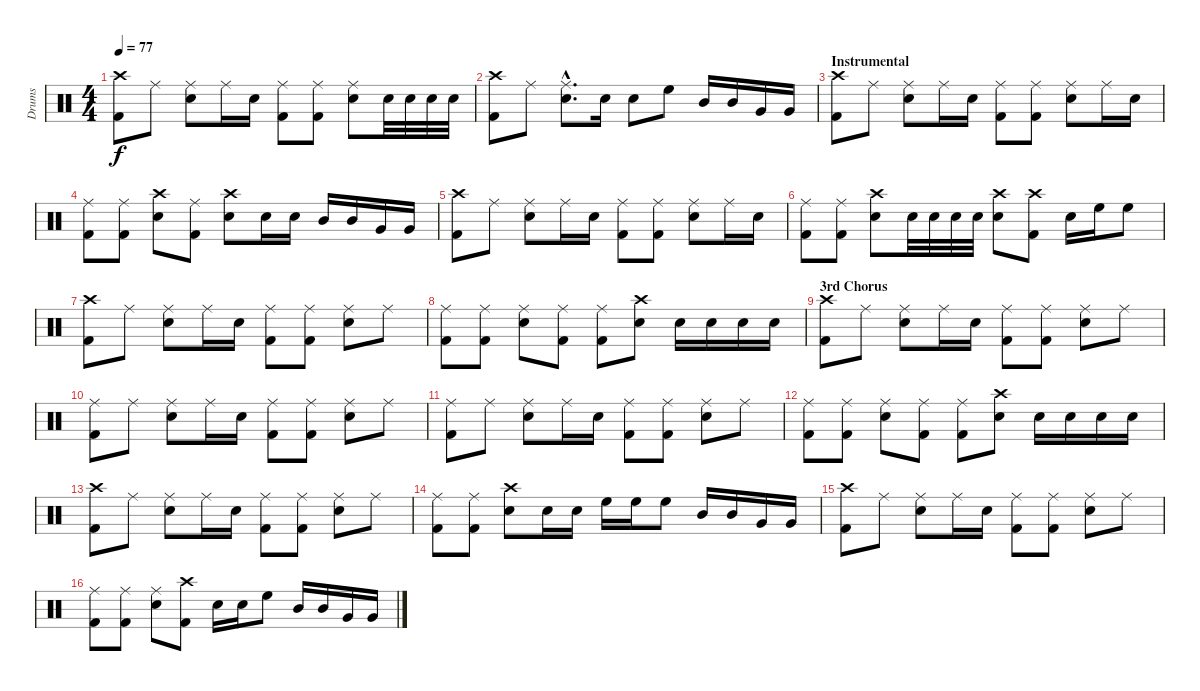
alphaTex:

\track ("Drums" "Drums") {instrument percussion}
\staff {score}
\articulation defaults
\ts (4 4)
\tempo 77
\clef neutral
\ks c
("Crash high (hit)" "Kick (hit) 2").8{dy f} "Ride (middle)".8 ("Ride (middle)" "Snare (hit) 2").8 "Ride (middle)".16 "Snare (hit) 2".16 ("Ride (middle)" "Kick (hit) 2").8 ("Ride (middle)" "Kick (hit) 2").8 ("Ride (middle)" "Snare (hit) 2").8 "Snare (hit) 2".32 "Snare (hit) 2".32 "Snare (hit) 2".32 "Snare (hit) 2".32 |
("Crash high (hit)" "Kick (hit) 2").8 "Ride (middle)".8 ("Ride (middle)"{hac} "Snare (hit) 2"{hac}).8{d} "Snare (hit) 2".16 "Snare (hit) 2".8 "High Floor Tom (hit)".8 "Mid Tom (hit)".16 "Mid Tom (hit)".16 "Very Low Tom (hit)".16 "Very Low Tom (hit)".16 |
\section ("" "Instrumental")
("Crash high (hit)" "Kick (hit) 2").8 "Ride (middle)".8 ("Ride (middle)" "Snare (hit) 2").8 "Ride (middle)".16 "Snare (hit) 2".16 ("Ride (middle)" "Kick (hit) 2").8 ("Ride (middle)" "Kick (hit) 2").8 ("Ride (middle)" "Snare (hit) 2").8 "Ride (middle)".16 "Snare (hit) 2".16 |
("Ride (middle)" "Kick (hit) 2").8 ("Ride (middle)" "Kick (hit) 2").8 ("Crash high (hit)" "Snare (hit) 2").8 ("Ride (middle)" "Kick (hit) 2").8 ("Crash high (hit)" "Snare (hit) 2").8 "Snare (hit) 2".16 "Snare (hit) 2".16 "Mid Tom (hit)".16 "Mid Tom (hit)".16 "Very Low Tom (hit)".16 "Very Low Tom (hit)".16 |
("Crash high (hit)" "Kick (hit) 2").8 "Ride (middle)".8 ("Ride (middle)" "Snare (hit) 2").8 "Ride (middle)".16 "Snare (hit) 2".16 ("Ride (middle)" "Kick (hit) 2").8 ("Ride (middle)" "Kick (hit) 2").8 ("Ride (middle)" "Snare (hit) 2").8 "Ride (middle)".16 "Snare (hit) 2".16 |
("Ride (middle)" "Kick (hit) 2").8 ("Ride (middle)" "Kick (hit) 2").8 ("Crash high (hit)" "Snare (hit) 2").8 "Snare (hit) 2".32 "Snare (hit) 2".32 "Snare (hit) 2".32 "Snare (hit) 2".32 ("Crash high (hit)" "Snare (hit) 2").8 ("Crash high (hit)" "Kick (hit) 2").8 "Snare (hit) 2".16 "High Floor Tom (hit)".16 "High Floor Tom (hit)".8 |
("Crash high (hit)" "Kick (hit) 2").8 "Ride (middle)".8 ("Ride (middle)" "Snare (hit) 2").8 "Ride (middle)".16 "Snare (hit) 2".16 ("Ride (middle)" "Kick (hit) 2").8 ("Ride (middle)" "Kick (hit) 2").8 ("Ride (middle)" "Snare (hit) 2").8 "Ride (middle)".8 |
("Ride (middle)" "Kick (hit) 2").8 ("Ride (middle)" "Kick (hit) 2").8 ("Ride (middle)" "Snare (hit) 2").8 ("Ride (middle)" "Kick (hit) 2").8 ("Ride (middle)" "Kick (hit) 2").8 ("Crash high (hit)" "Snare (hit) 2").8 "Snare (hit) 2".16 "Snare (hit) 2".16 "Snare (hit) 2".16 "Snare (hit) 2".16 |
\section ("" "3rd Chorus")
("Crash high (hit)" "Kick (hit) 2").8 "Ride (middle)".8 ("Ride (middle)" "Snare (hit) 2").8 "Ride (middle)".16 "Snare (hit) 2".16 ("Ride (middle)" "Kick (hit) 2").8 ("Ride (middle)" "Kick (hit) 2").8 ("Ride (middle)" "Snare (hit) 2").8 "Ride (middle)".8 |
("Ride (middle)" "Kick (hit) 2").8 "Ride (middle)".8 ("Ride (middle)" "Snare (hit) 2").8 "Ride (middle)".16 "Snare (hit) 2".16 ("Ride (middle)" "Kick (hit) 2").8 ("Ride (middle)" "Kick (hit) 2").8 ("Ride (middle)" "Snare (hit) 2").8 "Ride (middle)".8 |
("Ride (middle)" "Kick (hit) 2").8 "Ride (middle)".8 ("Ride (middle)" "Snare (hit) 2").8 "Ride (middle)".16 "Snare (hit) 2".16 ("Ride (middle)" "Kick (hit) 2").8 ("Ride (middle)" "Kick (hit) 2").8 ("Ride (middle)" "Snare (hit) 2").8 "Ride (middle)".8 |
("Ride (middle)" "Kick (hit) 2").8 ("Ride (middle)" "Kick (hit) 2").8 ("Ride (middle)" "Snare (hit) 2").8 ("Ride (middle)" "Kick (hit) 2").8 ("Ride (middle)" "Kick (hit) 2").8 ("Crash high (hit)" "Snare (hit) 2").8 "Snare (hit) 2".16 "Snare (hit) 2".16 "Snare (hit) 2".16 "Snare (hit) 2".16 |
("Crash high (hit)" "Kick (hit) 2").8 "Ride (middle)".8 ("Ride (middle)" "Snare (hit) 2").8 "Ride (middle)".16 "Snare (hit) 2".16 ("Ride (middle)" "Kick (hit) 2").8 ("Ride (middle)" "Kick (hit) 2").8 ("Ride (middle)" "Snare (hit) 2").8 "Ride (middle)".8 |
("Ride (middle)" "Kick (hit) 2").8 ("Ride (middle)" "Kick (hit) 2").8 ("Crash high (hit)" "Snare (hit) 2").8 "Snare (hit) 2".16 "Snare (hit) 2".16 "High Floor Tom (hit)".16 "High Floor Tom (hit)".16 "High Floor Tom (hit)".8 "Mid Tom (hit)".16 "Mid Tom (hit)".16 "Very Low Tom (hit)".16 "Very Low Tom (hit)".16 |
("Crash high (hit)" "Kick (hit) 2").8 "Ride (middle)".8 ("Ride (middle)" "Snare (hit) 2").8 "Ride (middle)".16 "Snare (hit) 2".16 ("Ride (middle)" "Kick (hit) 2").8 ("Ride (middle)" "Kick (hit) 2").8 ("Ride (middle)" "Snare (hit) 2").8 "Ride (middle)".8 |
("Ride (middle)" "Kick (hit) 2").8 ("Ride (middle)" "Kick (hit) 2").8 ("Ride (middle)" "Snare (hit) 2").8 ("Crash high (hit)" "Kick (hit) 2").8 "Snare (hit) 2".16 "Snare (hit) 2".16 "High Floor Tom (hit)".8 "Mid Tom (hit)".16 "Mid Tom (hit)".16 "Very Low Tom (hit)".16 "Very Low Tom (hit)".16
